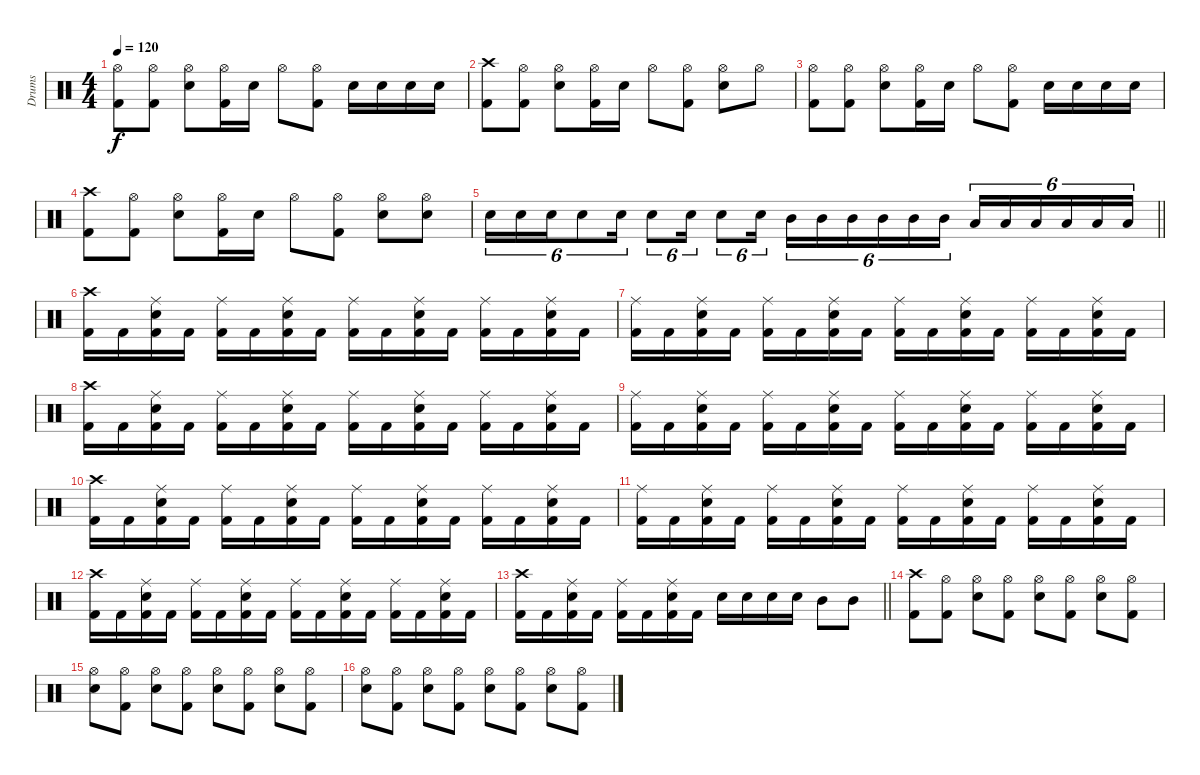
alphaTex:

\track ("Drums" "Drums") {instrument percussion}
\staff {score}
\articulation defaults
\ts (4 4)
\tempo 120
\clef neutral
\ks c
("Hi-Hat (open)" "Kick (hit) 2").8{dy f} ("Hi-Hat (open)" "Kick (hit) 2").8 ("Hi-Hat (open)" "Snare (hit) 2").8 ("Hi-Hat (open)" "Kick (hit) 2").16 "Snare (hit) 2".16 "Hi-Hat (open)".8 ("Hi-Hat (open)" "Kick (hit) 2").8 "Snare (hit) 2".16 "Snare (hit) 2".16 "Snare (hit) 2".16 "Snare (hit) 2".16 |
("Crash high (hit)" "Kick (hit) 2").8 ("Hi-Hat (open)" "Kick (hit) 2").8 ("Hi-Hat (open)" "Snare (hit) 2").8 ("Hi-Hat (open)" "Kick (hit) 2").16 "Snare (hit) 2".16 "Hi-Hat (open)".8 ("Hi-Hat (open)" "Kick (hit) 2").8 ("Hi-Hat (open)" "Snare (hit) 2").8 "Hi-Hat (open)".8 |
("Hi-Hat (open)" "Kick (hit) 2").8 ("Hi-Hat (open)" "Kick (hit) 2").8 ("Hi-Hat (open)" "Snare (hit) 2").8 ("Hi-Hat (open)" "Kick (hit) 2").16 "Snare (hit) 2".16 "Hi-Hat (open)".8 ("Hi-Hat (open)" "Kick (hit) 2").8 "Snare (hit) 2".16 "Snare (hit) 2".16 "Snare (hit) 2".16 "Snare (hit) 2".16 |
("Crash high (hit)" "Kick (hit) 2").8 ("Hi-Hat (open)" "Kick (hit) 2").8 ("Hi-Hat (open)" "Snare (hit) 2").8 ("Hi-Hat (open)" "Kick (hit) 2").16 "Snare (hit) 2".16 "Hi-Hat (open)".8 ("Hi-Hat (open)" "Kick (hit) 2").8 ("Hi-Hat (open)" "Snare (hit) 2").8 ("Hi-Hat (open)" "Snare (hit) 2").8 |
\barLineRight lightlight "Snare (hit) 2".16{tu (6 4)} "Snare (hit) 2".16{tu (6 4)} "Snare (hit) 2".16{tu (6 4)} "Snare (hit) 2".8{tu (6 4)} "Snare (hit) 2".16{tu (6 4)} "Snare (hit) 2".8{tu (6 4)} "Snare (hit) 2".16{tu (6 4)} "Snare (hit) 2".8{tu (6 4)} "Snare (hit) 2".16{tu (6 4)} "Mid Tom (hit)".16{tu (6 4)} "Mid Tom (hit)".16{tu (6 4)} "Mid Tom (hit)".16{tu (6 4)} "Mid Tom (hit)".16{tu (6 4)} "Mid Tom (hit)".16{tu (6 4)} "Mid Tom (hit)".16{tu (6 4)} "Low Floor Tom (hit)".16{tu (6 4)} "Low Floor Tom (hit)".16{tu (6 4)} "Low Floor Tom (hit)".16{tu (6 4)} "Low Floor Tom (hit)".16{tu (6 4)} "Low Floor Tom (hit)".16{tu (6 4)} "Low Floor Tom (hit)".16{tu (6 4)}
|
("Crash high (hit)" "Kick (hit) 2").16 "Kick (hit) 2".16 ("Ride (middle)" "Snare (hit) 2" "Kick (hit) 2").16 "Kick (hit) 2".16 ("Ride (middle)" "Kick (hit) 2").16 "Kick (hit) 2".16 ("Ride (middle)" "Snare (hit) 2" "Kick (hit) 2").16 "Kick (hit) 2".16 ("Ride (middle)" "Kick (hit) 2").16 "Kick (hit) 2".16 ("Ride (middle)" "Snare (hit) 2" "Kick (hit) 2").16 "Kick (hit) 2".16 ("Ride (middle)" "Kick (hit) 2").16 "Kick (hit) 2".16 ("Ride (middle)" "Snare (hit) 2" "Kick (hit) 2").16 "Kick (hit) 2".16 |
("Ride (middle)" "Kick (hit) 2").16 "Kick (hit) 2".16 ("Ride (middle)" "Snare (hit) 2" "Kick (hit) 2").16 "Kick (hit) 2".16 ("Ride (middle)" "Kick (hit) 2").16 "Kick (hit) 2".16 ("Ride (middle)" "Snare (hit) 2" "Kick (hit) 2").16 "Kick (hit) 2".16 ("Ride (middle)" "Kick (hit) 2").16 "Kick (hit) 2".16 ("Ride (middle)" "Snare (hit) 2" "Kick (hit) 2").16 "Kick (hit) 2".16 ("Ride (middle)" "Kick (hit) 2").16 "Kick (hit) 2".16 ("Ride (middle)" "Snare (hit) 2" "Kick (hit) 2").16 "Kick (hit) 2".16 |
("Crash high (hit)" "Kick (hit) 2").16 "Kick (hit) 2".16 ("Ride (middle)" "Snare (hit) 2" "Kick (hit) 2").16 "Kick (hit) 2".16 ("Ride (middle)" "Kick (hit) 2").16 "Kick (hit) 2".16 ("Ride (middle)" "Snare (hit) 2" "Kick (hit) 2").16 "Kick (hit) 2".16 ("Ride (middle)" "Kick (hit) 2").16 "Kick (hit) 2".16 ("Ride (middle)" "Snare (hit) 2" "Kick (hit) 2").16 "Kick (hit) 2".16 ("Ride (middle)" "Kick (hit) 2").16 "Kick (hit) 2".16 ("Ride (middle)" "Snare (hit) 2" "Kick (hit) 2").16 "Kick (hit) 2".16 |
("Ride (middle)" "Kick (hit) 2").16 "Kick (hit) 2".16 ("Ride (middle)" "Snare (hit) 2" "Kick (hit) 2").16 "Kick (hit) 2".16 ("Ride (middle)" "Kick (hit) 2").16 "Kick (hit) 2".16 ("Ride (middle)" "Snare (hit) 2" "Kick (hit) 2").16 "Kick (hit) 2".16 ("Ride (middle)" "Kick (hit) 2").16 "Kick (hit) 2".16 ("Ride (middle)" "Snare (hit) 2" "Kick (hit) 2").16 "Kick (hit) 2".16 ("Ride (middle)" "Kick (hit) 2").16 "Kick (hit) 2".16 ("Ride (middle)" "Snare (hit) 2" "Kick (hit) 2").16 "Kick (hit) 2".16 |
("Crash high (hit)" "Kick (hit) 2").16 "Kick (hit) 2".16 ("Ride (middle)" "Snare (hit) 2" "Kick (hit) 2").16 "Kick (hit) 2".16 ("Ride (middle)" "Kick (hit) 2").16 "Kick (hit) 2".16 ("Ride (middle)" "Snare (hit) 2" "Kick (hit) 2").16 "Kick (hit) 2".16 ("Ride (middle)" "Kick (hit) 2").16 "Kick (hit) 2".16 ("Ride (middle)" "Snare (hit) 2" "Kick (hit) 2").16 "Kick (hit) 2".16 ("Ride (middle)" "Kick (hit) 2").16 "Kick (hit) 2".16 ("Ride (middle)" "Snare (hit) 2" "Kick (hit) 2").16 "Kick (hit) 2".16 |
("Ride (middle)" "Kick (hit) 2").16 "Kick (hit) 2".16 ("Ride (middle)" "Snare (hit) 2" "Kick (hit) 2").16 "Kick (hit) 2".16 ("Ride (middle)" "Kick (hit) 2").16 "Kick (hit) 2".16 ("Ride (middle)" "Snare (hit) 2" "Kick (hit) 2").16 "Kick (hit) 2".16 ("Ride (middle)" "Kick (hit) 2").16 "Kick (hit) 2".16 ("Ride (middle)" "Snare (hit) 2" "Kick (hit) 2").16 "Kick (hit) 2".16 ("Ride (middle)" "Kick (hit) 2").16 "Kick (hit) 2".16 ("Ride (middle)" "Snare (hit) 2" "Kick (hit) 2").16 "Kick (hit) 2".16 |
("Crash high (hit)" "Kick (hit) 2").16 "Kick (hit) 2".16 ("Ride (middle)" "Snare (hit) 2" "Kick (hit) 2").16 "Kick (hit) 2".16 ("Ride (middle)" "Kick (hit) 2").16 "Kick (hit) 2".16 ("Ride (middle)" "Snare (hit) 2" "Kick (hit) 2").16 "Kick (hit) 2".16 ("Ride (middle)" "Kick (hit) 2").16 "Kick (hit) 2".16 ("Ride (middle)" "Snare (hit) 2" "Kick (hit) 2").16 "Kick (hit) 2".16 ("Ride (middle)" "Kick (hit) 2").16 "Kick (hit) 2".16 ("Ride (middle)" "Snare (hit) 2" "Kick (hit) 2").16 "Kick (hit) 2".16 |
\barLineRight lightlight
("Crash high (hit)" "Kick (hit) 2").16 "Kick (hit) 2".16 ("Ride (middle)" "Snare (hit) 2" "Kick (hit) 2").16 "Kick (hit) 2".16 ("Ride (middle)" "Kick (hit) 2").16 "Kick (hit) 2".16 ("Ride (middle)" "Snare (hit) 2" "Kick (hit) 2").16 "Kick (hit) 2".16 "Snare (hit) 2".16 "Snare (hit) 2".16 "Snare (hit) 2".16 "Snare (hit) 2".16 "Mid Tom (hit)".8 "Mid Tom (hit)".8 |
("Crash high (hit)" "Kick (hit) 2").8 ("Hi-Hat (open)" "Kick (hit) 2").8 ("Hi-Hat (open)" "Snare (hit) 2").8 ("Hi-Hat (open)" "Kick (hit) 2").8 ("Hi-Hat (open)" "Snare (hit) 2").8 ("Hi-Hat (open)" "Kick (hit) 2").8 ("Hi-Hat (open)" "Snare (hit) 2").8 ("Hi-Hat (open)" "Kick (hit) 2").8 |
("Hi-Hat (open)" "Snare (hit) 2").8 ("Hi-Hat (open)" "Kick (hit) 2").8 ("Hi-Hat (open)" "Snare (hit) 2").8 ("Hi-Hat (open)" "Kick (hit) 2").8 ("Hi-Hat (open)" "Snare (hit) 2").8 ("Hi-Hat (open)" "Kick (hit) 2").8 ("Hi-Hat (open)" "Snare (hit) 2").8 ("Hi-Hat (open)" "Kick (hit) 2").8 |
("Hi-Hat (open)" "Snare (hit) 2").8 ("Hi-Hat (open)" "Kick (hit) 2").8 ("Hi-Hat (open)" "Snare (hit) 2").8 ("Hi-Hat (open)" "Kick (hit) 2").8 ("Hi-Hat (open)" "Snare (hit) 2").8 ("Hi-Hat (open)" "Kick (hit) 2").8 ("Hi-Hat (open)" "Snare (hit) 2").8 ("Hi-Hat (open)" "Kick (hit) 2").8
